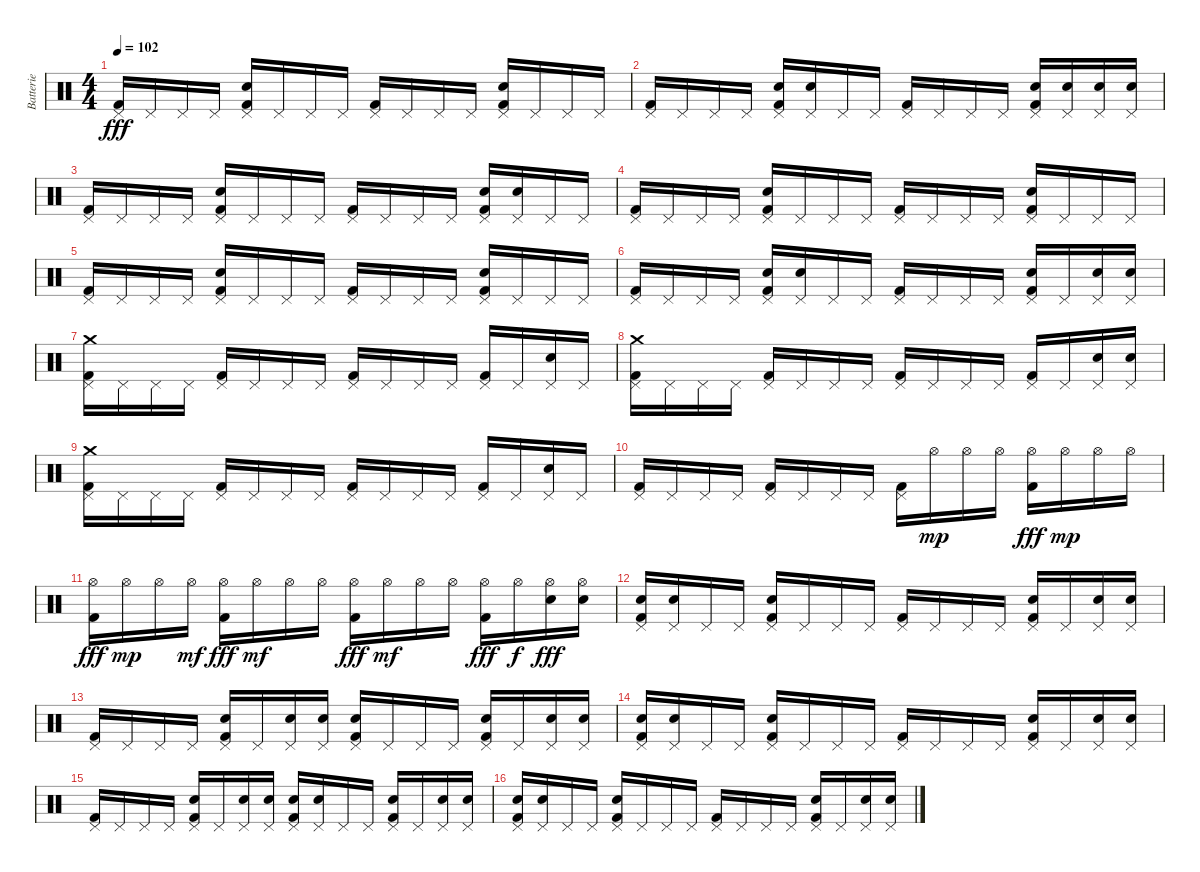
\track ("Batterie" "Batterie") {instrument percussion}
\staff {score}
\articulation defaults
\ts (4 4)
\tempo 102
\clef neutral
\ks c
("Pedal Hi-Hat (hit)" "Kick (hit) 2").16{dy fff} "Pedal Hi-Hat (hit)".16 "Pedal Hi-Hat (hit)".16 "Pedal Hi-Hat (hit)".16 ("Pedal Hi-Hat (hit)" "Electric Snare (hit)" "Kick (hit) 2").16 "Pedal Hi-Hat (hit)".16 "Pedal Hi-Hat (hit)".16 "Pedal Hi-Hat (hit)".16 ("Pedal Hi-Hat (hit)" "Kick (hit) 2").16 "Pedal Hi-Hat (hit)".16 "Pedal Hi-Hat (hit)".16 "Pedal Hi-Hat (hit)".16 ("Pedal Hi-Hat (hit)" "Electric Snare (hit)" "Kick (hit) 2").16 "Pedal Hi-Hat (hit)".16 "Pedal Hi-Hat (hit)".16 "Pedal Hi-Hat (hit)".16 |
("Pedal Hi-Hat (hit)" "Kick (hit) 2").16 "Pedal Hi-Hat (hit)".16 "Pedal Hi-Hat (hit)".16 "Pedal Hi-Hat (hit)".16 ("Pedal Hi-Hat (hit)" "Electric Snare (hit)" "Kick (hit) 2").16 ("Pedal Hi-Hat (hit)" "Electric Snare (hit)").16 "Pedal Hi-Hat (hit)".16 "Pedal Hi-Hat (hit)".16 ("Pedal Hi-Hat (hit)" "Kick (hit) 2").16 "Pedal Hi-Hat (hit)".16 "Pedal Hi-Hat (hit)".16 "Pedal Hi-Hat (hit)".16 ("Pedal Hi-Hat (hit)" "Electric Snare (hit)" "Kick (hit) 2").16 ("Pedal Hi-Hat (hit)" "Electric Snare (hit)").16 ("Pedal Hi-Hat (hit)" "Electric Snare (hit)").16 ("Pedal Hi-Hat (hit)" "Electric Snare (hit)").16 |
("Pedal Hi-Hat (hit)" "Kick (hit) 2").16 "Pedal Hi-Hat (hit)".16 "Pedal Hi-Hat (hit)".16 "Pedal Hi-Hat (hit)".16 ("Pedal Hi-Hat (hit)" "Electric Snare (hit)" "Kick (hit) 2").16 "Pedal Hi-Hat (hit)".16 "Pedal Hi-Hat (hit)".16 "Pedal Hi-Hat (hit)".16 ("Pedal Hi-Hat (hit)" "Kick (hit) 2").16 "Pedal Hi-Hat (hit)".16 "Pedal Hi-Hat (hit)".16 "Pedal Hi-Hat (hit)".16 ("Pedal Hi-Hat (hit)" "Electric Snare (hit)" "Kick (hit) 2").16 ("Pedal Hi-Hat (hit)" "Electric Snare (hit)").16 "Pedal Hi-Hat (hit)".16 "Pedal Hi-Hat (hit)".16 |
("Pedal Hi-Hat (hit)" "Kick (hit) 2").16 "Pedal Hi-Hat (hit)".16 "Pedal Hi-Hat (hit)".16 "Pedal Hi-Hat (hit)".16 ("Pedal Hi-Hat (hit)" "Electric Snare (hit)" "Kick (hit) 2").16 "Pedal Hi-Hat (hit)".16 "Pedal Hi-Hat (hit)".16 "Pedal Hi-Hat (hit)".16 ("Pedal Hi-Hat (hit)" "Kick (hit) 2").16 "Pedal Hi-Hat (hit)".16 "Pedal Hi-Hat (hit)".16 "Pedal Hi-Hat (hit)".16 ("Pedal Hi-Hat (hit)" "Electric Snare (hit)" "Kick (hit) 2").16 "Pedal Hi-Hat (hit)".16 "Pedal Hi-Hat (hit)".16 "Pedal Hi-Hat (hit)".16 |
("Pedal Hi-Hat (hit)" "Kick (hit) 2").16 "Pedal Hi-Hat (hit)".16 "Pedal Hi-Hat (hit)".16 "Pedal Hi-Hat (hit)".16 ("Pedal Hi-Hat (hit)" "Electric Snare (hit)" "Kick (hit) 2").16 "Pedal Hi-Hat (hit)".16 "Pedal Hi-Hat (hit)".16 "Pedal Hi-Hat (hit)".16 ("Pedal Hi-Hat (hit)" "Kick (hit) 2").16 "Pedal Hi-Hat (hit)".16 "Pedal Hi-Hat (hit)".16 "Pedal Hi-Hat (hit)".16 ("Pedal Hi-Hat (hit)" "Electric Snare (hit)" "Kick (hit) 2").16 "Pedal Hi-Hat (hit)".16 "Pedal Hi-Hat (hit)".16 "Pedal Hi-Hat (hit)".16 |
("Pedal Hi-Hat (hit)" "Kick (hit) 2").16 "Pedal Hi-Hat (hit)".16 "Pedal Hi-Hat (hit)".16 "Pedal Hi-Hat (hit)".16 ("Pedal Hi-Hat (hit)" "Electric Snare (hit)" "Kick (hit) 2").16 ("Pedal Hi-Hat (hit)" "Electric Snare (hit)").16 "Pedal Hi-Hat (hit)".16 "Pedal Hi-Hat (hit)".16 ("Pedal Hi-Hat (hit)" "Kick (hit) 2").16 "Pedal Hi-Hat (hit)".16 "Pedal Hi-Hat (hit)".16 "Pedal Hi-Hat (hit)".16 ("Pedal Hi-Hat (hit)" "Electric Snare (hit)" "Kick (hit) 2").16 "Pedal Hi-Hat (hit)".16 ("Pedal Hi-Hat (hit)" "Electric Snare (hit)").16 ("Pedal Hi-Hat (hit)" "Electric Snare (hit)").16 |
("Crash medium (hit)" "Pedal Hi-Hat (hit)" "Kick (hit) 2").16 "Pedal Hi-Hat (hit)".16 "Pedal Hi-Hat (hit)".16 "Pedal Hi-Hat (hit)".16 ("Pedal Hi-Hat (hit)" "Kick (hit) 2").16 "Pedal Hi-Hat (hit)".16 "Pedal Hi-Hat (hit)".16 "Pedal Hi-Hat (hit)".16 ("Pedal Hi-Hat (hit)" "Kick (hit) 2").16 "Pedal Hi-Hat (hit)".16 "Pedal Hi-Hat (hit)".16 "Pedal Hi-Hat (hit)".16 ("Pedal Hi-Hat (hit)" "Kick (hit) 2").16 "Pedal Hi-Hat (hit)".16 ("Pedal Hi-Hat (hit)" "Electric Snare (hit)").16 "Pedal Hi-Hat (hit)".16 |
("Crash medium (hit)" "Pedal Hi-Hat (hit)" "Kick (hit) 2").16 "Pedal Hi-Hat (hit)".16 "Pedal Hi-Hat (hit)".16 "Pedal Hi-Hat (hit)".16 ("Pedal Hi-Hat (hit)" "Kick (hit) 2").16 "Pedal Hi-Hat (hit)".16 "Pedal Hi-Hat (hit)".16 "Pedal Hi-Hat (hit)".16 ("Pedal Hi-Hat (hit)" "Kick (hit) 2").16 "Pedal Hi-Hat (hit)".16 "Pedal Hi-Hat (hit)".16 "Pedal Hi-Hat (hit)".16 ("Pedal Hi-Hat (hit)" "Kick (hit) 2").16 "Pedal Hi-Hat (hit)".16 ("Pedal Hi-Hat (hit)" "Electric Snare (hit)").16 ("Pedal Hi-Hat (hit)" "Electric Snare (hit)").16 |
("Crash medium (hit)" "Pedal Hi-Hat (hit)" "Kick (hit) 2").16 "Pedal Hi-Hat (hit)".16 "Pedal Hi-Hat (hit)".16 "Pedal Hi-Hat (hit)".16 ("Pedal Hi-Hat (hit)" "Kick (hit) 2").16 "Pedal Hi-Hat (hit)".16 "Pedal Hi-Hat (hit)".16 "Pedal Hi-Hat (hit)".16 ("Pedal Hi-Hat (hit)" "Kick (hit) 2").16 "Pedal Hi-Hat (hit)".16 "Pedal Hi-Hat (hit)".16 "Pedal Hi-Hat (hit)".16 ("Pedal Hi-Hat (hit)" "Kick (hit) 2").16 "Pedal Hi-Hat (hit)".16 ("Pedal Hi-Hat (hit)" "Electric Snare (hit)").16 "Pedal Hi-Hat (hit)".16 |
("Pedal Hi-Hat (hit)" "Kick (hit) 2").16 "Pedal Hi-Hat (hit)".16 "Pedal Hi-Hat (hit)".16 "Pedal Hi-Hat (hit)".16 ("Pedal Hi-Hat (hit)" "Kick (hit) 2").16 "Pedal Hi-Hat (hit)".16 "Pedal Hi-Hat (hit)".16 "Pedal Hi-Hat (hit)".16 ("Pedal Hi-Hat (hit)" "Kick (hit) 2").16 "Hi-Hat (open)".16{dy mp} "Hi-Hat (open)".16 "Hi-Hat (open)".16 ("Hi-Hat (open)" "Kick (hit) 2").16{dy fff} "Hi-Hat (open)".16{dy mp} "Hi-Hat (open)".16 "Hi-Hat (open)".16 |
("Hi-Hat (open)" "Kick (hit) 2").16{dy fff} "Hi-Hat (open)".16{dy mp} "Hi-Hat (open)".16 "Hi-Hat (open)".16{dy mf} ("Hi-Hat (open)" "Kick (hit) 2").16{dy fff} "Hi-Hat (open)".16{dy mf} "Hi-Hat (open)".16 "Hi-Hat (open)".16 ("Hi-Hat (open)" "Kick (hit) 2").16{dy fff} "Hi-Hat (open)".16{dy mf} "Hi-Hat (open)".16 "Hi-Hat (open)".16 ("Hi-Hat (open)" "Kick (hit) 2").16{dy fff} "Hi-Hat (open)".16{dy f} ("Hi-Hat (open)" "Electric Snare (hit)").16{dy fff} ("Hi-Hat (open)" "Electric Snare (hit)").16 |
("Pedal Hi-Hat (hit)" "Electric Snare (hit)" "Kick (hit) 2").16 ("Pedal Hi-Hat (hit)" "Electric Snare (hit)").16 "Pedal Hi-Hat (hit)".16 "Pedal Hi-Hat (hit)".16 ("Pedal Hi-Hat (hit)" "Electric Snare (hit)" "Kick (hit) 2").16 "Pedal Hi-Hat (hit)".16 "Pedal Hi-Hat (hit)".16 "Pedal Hi-Hat (hit)".16 ("Pedal Hi-Hat (hit)" "Kick (hit) 2").16 "Pedal Hi-Hat (hit)".16 "Pedal Hi-Hat (hit)".16 "Pedal Hi-Hat (hit)".16 ("Pedal Hi-Hat (hit)" "Electric Snare (hit)" "Kick (hit) 2").16 "Pedal Hi-Hat (hit)".16 ("Pedal Hi-Hat (hit)" "Electric Snare (hit)").16 ("Pedal Hi-Hat (hit)" "Electric Snare (hit)").16 |
("Pedal Hi-Hat (hit)" "Kick (hit) 2").16 "Pedal Hi-Hat (hit)".16 "Pedal Hi-Hat (hit)".16 "Pedal Hi-Hat (hit)".16 ("Pedal Hi-Hat (hit)" "Electric Snare (hit)" "Kick (hit) 2").16 "Pedal Hi-Hat (hit)".16 ("Pedal Hi-Hat (hit)" "Electric Snare (hit)").16 ("Pedal Hi-Hat (hit)" "Electric Snare (hit)").16 ("Pedal Hi-Hat (hit)" "Electric Snare (hit)" "Kick (hit) 2").16 "Pedal Hi-Hat (hit)".16 "Pedal Hi-Hat (hit)".16 "Pedal Hi-Hat (hit)".16 ("Pedal Hi-Hat (hit)" "Electric Snare (hit)" "Kick (hit) 2").16 "Pedal Hi-Hat (hit)".16 ("Pedal Hi-Hat (hit)" "Electric Snare (hit)").16 ("Pedal Hi-Hat (hit)" "Electric Snare (hit)").16 |
("Pedal Hi-Hat (hit)" "Electric Snare (hit)" "Kick (hit) 2").16 ("Pedal Hi-Hat (hit)" "Electric Snare (hit)").16 "Pedal Hi-Hat (hit)".16 "Pedal Hi-Hat (hit)".16 ("Pedal Hi-Hat (hit)" "Electric Snare (hit)" "Kick (hit) 2").16 "Pedal Hi-Hat (hit)".16 "Pedal Hi-Hat (hit)".16 "Pedal Hi-Hat (hit)".16 ("Pedal Hi-Hat (hit)" "Kick (hit) 2").16 "Pedal Hi-Hat (hit)".16 "Pedal Hi-Hat (hit)".16 "Pedal Hi-Hat (hit)".16 ("Pedal Hi-Hat (hit)" "Electric Snare (hit)" "Kick (hit) 2").16 "Pedal Hi-Hat (hit)".16 ("Pedal Hi-Hat (hit)" "Electric Snare (hit)").16 ("Pedal Hi-Hat (hit)" "Electric Snare (hit)").16 |
("Pedal Hi-Hat (hit)" "Kick (hit) 2").16 "Pedal Hi-Hat (hit)".16 "Pedal Hi-Hat (hit)".16 "Pedal Hi-Hat (hit)".16 ("Pedal Hi-Hat (hit)" "Electric Snare (hit)" "Kick (hit) 2").16 "Pedal Hi-Hat (hit)".16 ("Pedal Hi-Hat (hit)" "Electric Snare (hit)").16 ("Pedal Hi-Hat (hit)" "Electric Snare (hit)").16 ("Pedal Hi-Hat (hit)" "Electric Snare (hit)" "Kick (hit) 2").16 ("Pedal Hi-Hat (hit)" "Electric Snare (hit)").16 "Pedal Hi-Hat (hit)".16 "Pedal Hi-Hat (hit)".16 ("Pedal Hi-Hat (hit)" "Electric Snare (hit)" "Kick (hit) 2").16 "Pedal Hi-Hat (hit)".16 ("Pedal Hi-Hat (hit)" "Electric Snare (hit)").16 ("Pedal Hi-Hat (hit)" "Electric Snare (hit)").16 |
("Pedal Hi-Hat (hit)" "Electric Snare (hit)" "Kick (hit) 2").16 ("Pedal Hi-Hat (hit)" "Electric Snare (hit)").16 "Pedal Hi-Hat (hit)".16 "Pedal Hi-Hat (hit)".16 ("Pedal Hi-Hat (hit)" "Electric Snare (hit)" "Kick (hit) 2").16 "Pedal Hi-Hat (hit)".16 "Pedal Hi-Hat (hit)".16 "Pedal Hi-Hat (hit)".16 ("Pedal Hi-Hat (hit)" "Kick (hit) 2").16 "Pedal Hi-Hat (hit)".16 "Pedal Hi-Hat (hit)".16 "Pedal Hi-Hat (hit)".16 ("Pedal Hi-Hat (hit)" "Electric Snare (hit)" "Kick (hit) 2").16 "Pedal Hi-Hat (hit)".16 ("Pedal Hi-Hat (hit)" "Electric Snare (hit)").16 ("Pedal Hi-Hat (hit)" "Electric Snare (hit)").16
